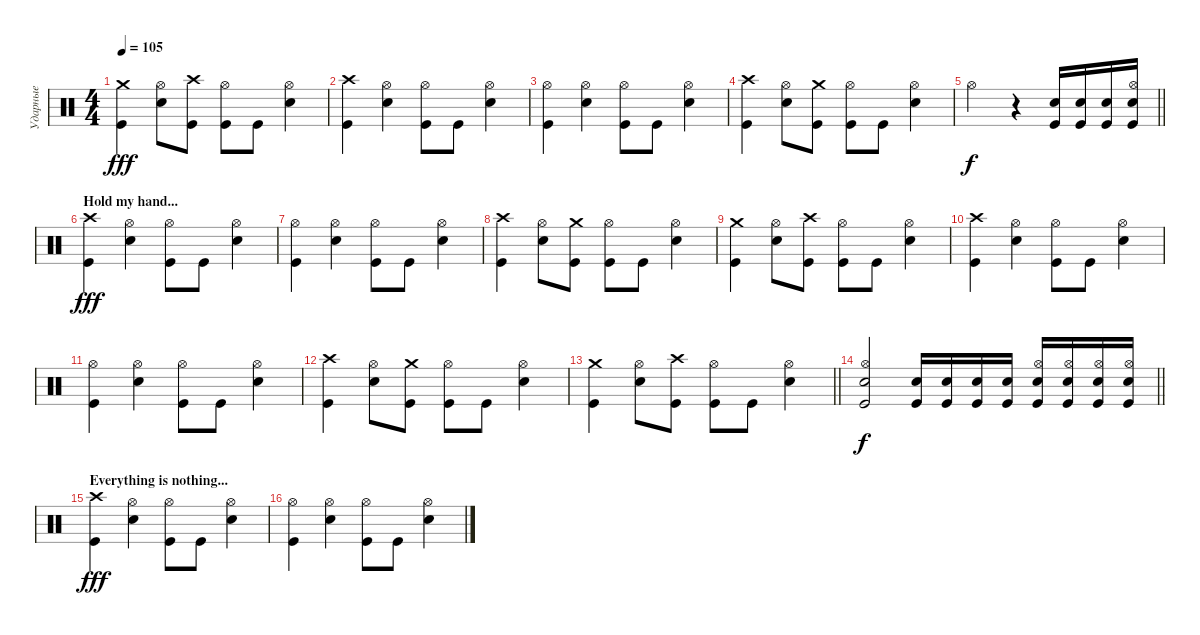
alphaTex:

\track ("Ударные" "Ударные") {instrument percussion}
\staff {score}
\articulation defaults
\ts (4 4)
\tempo 105
\clef neutral
\ks c
("Crash medium (hit)" "Kick (hit)").4{dy fff} ("Hi-Hat (open)" "Electric Snare (hit)").8 ("Crash high (hit)" "Kick (hit)").8 ("Hi-Hat (open)" "Kick (hit)").8 "Kick (hit)".8 ("Hi-Hat (open)" "Electric Snare (hit)").4 |
("Crash high (hit)" "Kick (hit)").4{volume 16} ("Hi-Hat (open)" "Electric Snare (hit)").4 ("Hi-Hat (open)" "Kick (hit)").8 "Kick (hit)".8 ("Hi-Hat (open)" "Electric Snare (hit)").4 |
("Hi-Hat (open)" "Kick (hit)").4 ("Hi-Hat (open)" "Electric Snare (hit)").4 ("Hi-Hat (open)" "Kick (hit)").8 "Kick (hit)".8 ("Hi-Hat (open)" "Electric Snare (hit)").4 |
("Crash high (hit)" "Kick (hit)").4 ("Hi-Hat (open)" "Electric Snare (hit)").8 ("Crash medium (hit)" "Kick (hit)").8 ("Hi-Hat (open)" "Kick (hit)").8 "Kick (hit)".8 ("Hi-Hat (open)" "Electric Snare (hit)").4 |
\barLineRight lightlight "Hi-Hat (open)".2{dy f}
r.4 ("Snare (hit) 2" "Kick (hit)").16 ("Kick (hit)" "Snare (hit) 2").16 ("Snare (hit) 2" "Kick (hit)").16 ("Kick (hit)" "Snare (hit) 2" "Hi-Hat (open)").16 |
\section ("" "Hold my hand...")
("Crash high (hit)" "Kick (hit)").4{dy fff volume 16} ("Hi-Hat (open)" "Electric Snare (hit)").4 ("Hi-Hat (open)" "Kick (hit)").8 "Kick (hit)".8 ("Hi-Hat (open)" "Electric Snare (hit)").4 |
("Hi-Hat (open)" "Kick (hit)").4 ("Hi-Hat (open)" "Electric Snare (hit)").4 ("Hi-Hat (open)" "Kick (hit)").8 "Kick (hit)".8 ("Hi-Hat (open)" "Electric Snare (hit)").4 |
("Crash high (hit)" "Kick (hit)").4 ("Hi-Hat (open)" "Electric Snare (hit)").8 ("Crash medium (hit)" "Kick (hit)").8 ("Hi-Hat (open)" "Kick (hit)").8 "Kick (hit)".8 ("Hi-Hat (open)" "Electric Snare (hit)").4 |
("Crash medium (hit)" "Kick (hit)").4 ("Hi-Hat (open)" "Electric Snare (hit)").8 ("Crash high (hit)" "Kick (hit)").8 ("Hi-Hat (open)" "Kick (hit)").8 "Kick (hit)".8 ("Hi-Hat (open)" "Electric Snare (hit)").4 |
("Crash high (hit)" "Kick (hit)").4 ("Hi-Hat (open)" "Electric Snare (hit)").4 ("Hi-Hat (open)" "Kick (hit)").8 "Kick (hit)".8 ("Hi-Hat (open)" "Electric Snare (hit)").4 |
("Hi-Hat (open)" "Kick (hit)").4 ("Hi-Hat (open)" "Electric Snare (hit)").4 ("Hi-Hat (open)" "Kick (hit)").8 "Kick (hit)".8 ("Hi-Hat (open)" "Electric Snare (hit)").4 |
("Crash high (hit)" "Kick (hit)").4 ("Hi-Hat (open)" "Electric Snare (hit)").8 ("Crash medium (hit)" "Kick (hit)").8 ("Hi-Hat (open)" "Kick (hit)").8 "Kick (hit)".8 ("Hi-Hat (open)" "Electric Snare (hit)").4 |
\barLineRight lightlight
("Crash medium (hit)" "Kick (hit)").4 ("Hi-Hat (open)" "Electric Snare (hit)").8 ("Crash high (hit)" "Kick (hit)").8 ("Hi-Hat (open)" "Kick (hit)").8 "Kick (hit)".8 ("Hi-Hat (open)" "Electric Snare (hit)").4 |
\barLineRight lightlight
("Snare (hit) 2" "Kick (hit)" "Hi-Hat (open)").2{dy f} ("Snare (hit) 2" "Kick (hit)").16 ("Kick (hit)" "Snare (hit) 2").16 ("Snare (hit) 2" "Kick (hit)").16 ("Kick (hit)" "Snare (hit) 2").16 ("Snare (hit) 2" "Kick (hit)" "Hi-Hat (open)").16 ("Hi-Hat (open)" "Kick (hit)" "Snare (hit) 2").16 ("Snare (hit) 2" "Kick (hit)" "Hi-Hat (open)").16 ("Hi-Hat (open)" "Kick (hit)" "Snare (hit) 2").16 |
\section ("" "Everything is nothing...")
("Crash high (hit)" "Kick (hit)").4{dy fff volume 16} ("Hi-Hat (open)" "Electric Snare (hit)").4 ("Hi-Hat (open)" "Kick (hit)").8 "Kick (hit)".8 ("Hi-Hat (open)" "Electric Snare (hit)").4 |
("Hi-Hat (open)" "Kick (hit)").4 ("Hi-Hat (open)" "Electric Snare (hit)").4 ("Hi-Hat (open)" "Kick (hit)").8 "Kick (hit)".8 ("Hi-Hat (open)" "Electric Snare (hit)").4
